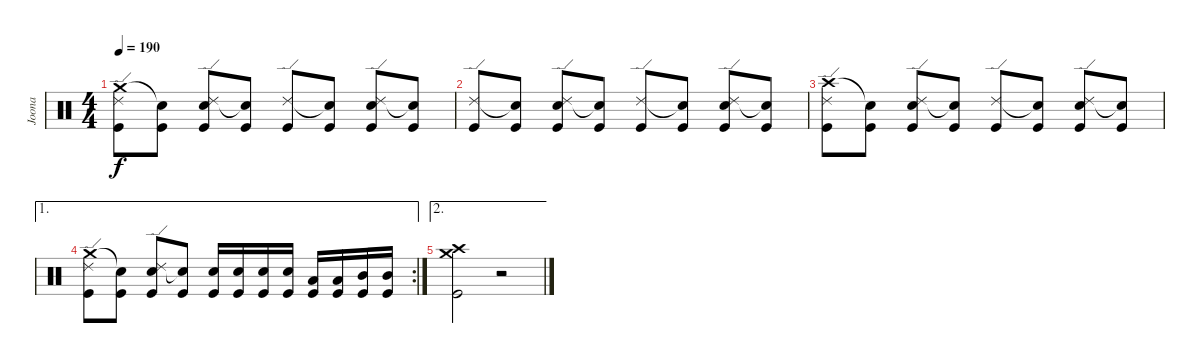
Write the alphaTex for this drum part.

\track ("Joona" "Joona") {instrument percussion}
\staff {score}
\articulation defaults
\ts (4 4)
\tempo 190
\clef neutral
\ks c
("Crash medium (hit)" "Ride (edge) 2" "Kick (hit)").8{dy f} ("Snare (hit)"{t} "Kick (hit)").8 ("Ride (edge) 2" "Snare (hit) 2" "Kick (hit)").8 ("Snare (hit)"{t} "Kick (hit)").8 ("Ride (edge) 2" "Kick (hit)").8 ("Snare (hit)"{t} "Kick (hit)").8 ("Ride (edge) 2" "Snare (hit) 2" "Kick (hit)").8 ("Snare (hit)"{t} "Kick (hit)").8 |
("Ride (edge) 2" "Kick (hit)").8 ("Snare (hit)"{t} "Kick (hit)").8 ("Ride (edge) 2" "Snare (hit) 2" "Kick (hit)").8 ("Snare (hit)"{t} "Kick (hit)").8 ("Ride (edge) 2" "Kick (hit)").8 ("Snare (hit)"{t} "Kick (hit)").8 ("Ride (edge) 2" "Snare (hit) 2" "Kick (hit)").8 ("Snare (hit)"{t} "Kick (hit)").8 |
("Crash high (hit)" "Ride (edge) 2" "Kick (hit)").8 ("Snare (hit)"{t} "Kick (hit)").8 ("Ride (edge) 2" "Snare (hit) 2" "Kick (hit)").8 ("Snare (hit)"{t} "Kick (hit)").8 ("Ride (edge) 2" "Kick (hit)").8 ("Snare (hit)"{t} "Kick (hit)").8 ("Ride (edge) 2" "Snare (hit) 2" "Kick (hit)").8 ("Snare (hit)"{t} "Kick (hit)").8 |
\ae 1
\rc 2
("Crash medium (hit)" "Ride (edge) 2" "Kick (hit)").8 ("Snare (hit)"{t} "Kick (hit)").8 ("Ride (edge) 2" "Snare (hit) 2" "Kick (hit)").8 ("Snare (hit)"{t} "Kick (hit)").8 ("Snare (hit) 2" "Kick (hit)").16 ("Snare (hit) 2" "Kick (hit)").16 ("Snare (hit) 2" "Kick (hit)").16 ("Snare (hit) 2" "Kick (hit)").16 ("Low Tom (hit)" "Kick (hit)").16 ("Low Tom (hit)" "Kick (hit)").16 ("Mid Tom (hit)" "Kick (hit)").16 ("Mid Tom (hit)" "Kick (hit)").16 |
\ae 2
("Crash medium (hit)" "Crash high (hit)" "Kick (hit)").2 r.2
